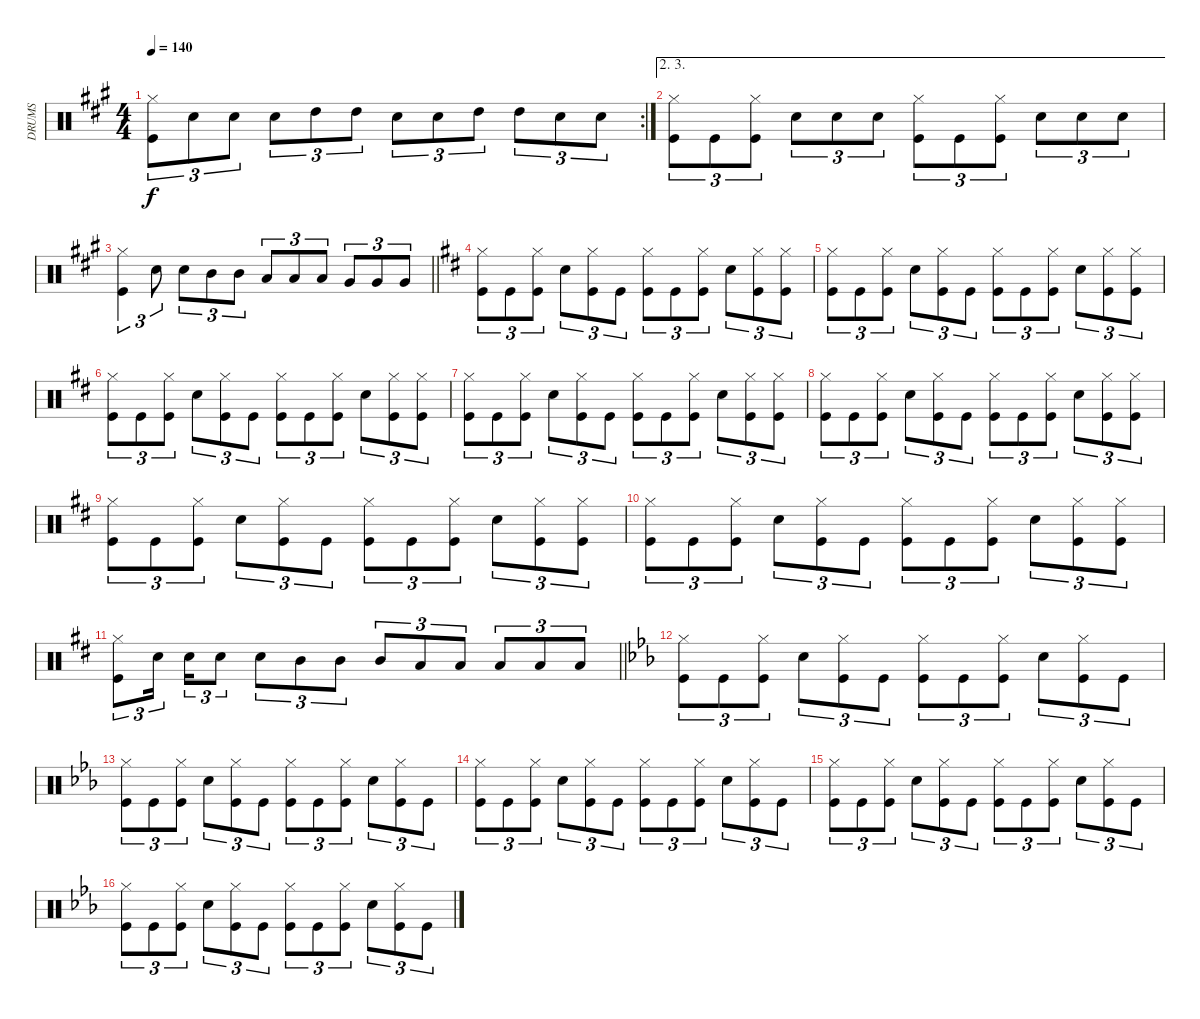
\track ("DRUMS" "DRUMS") {instrument percussion}
\staff {score}
\articulation defaults
\rc 2
\ts (4 4)
\tempo 140
\clef neutral
\ks a
("Hi-Hat (closed)" "Kick (hit)").8{tu (3 2) dy f} "Snare (hit) 2".8{tu (3 2)} "Snare (hit) 2".8{tu (3 2)} "Snare (hit) 2".8{tu (3 2)} "High Tom (hit)".8{tu (3 2)} "High Tom (hit)".8{tu (3 2)} "Snare (hit) 2".8{tu (3 2)} "Snare (hit) 2".8{tu (3 2)} "High Tom (hit)".8{tu (3 2)} "High Tom (hit)".8{tu (3 2)} "Snare (hit) 2".8{tu (3 2)} "Snare (hit) 2".8{tu (3 2)} |
\ae (2 3)
("Hi-Hat (closed)" "Kick (hit)").8{tu (3 2)} "Kick (hit)".8{tu (3 2)} ("Hi-Hat (closed)" "Kick (hit)").8{tu (3 2)} "Snare (hit) 2".8{tu (3 2)} "Snare (hit) 2".8{tu (3 2)} "Snare (hit) 2".8{tu (3 2)} ("Hi-Hat (closed)" "Kick (hit)").8{tu (3 2)} "Kick (hit)".8{tu (3 2)} ("Hi-Hat (closed)" "Kick (hit)").8{tu (3 2)} "Snare (hit) 2".8{tu (3 2)} "Snare (hit) 2".8{tu (3 2)} "Snare (hit) 2".8{tu (3 2)} |
\barLineRight lightlight
("Hi-Hat (closed)" "Kick (hit)").4{tu (3 2)} "Snare (hit) 2".8{tu (3 2)} "Snare (hit) 2".8{tu (3 2)} "Mid Tom (hit)".8{tu (3 2)} "Mid Tom (hit)".8{tu (3 2)} "Low Tom (hit)".8{tu (3 2)} "Low Tom (hit)".8{tu (3 2)} "Low Tom (hit)".8{tu (3 2)} "Very Low Tom (hit)".8{tu (3 2)} "Very Low Tom (hit)".8{tu (3 2)} "Very Low Tom (hit)".8{tu (3 2)} |
\ks d
("Hi-Hat (closed)" "Kick (hit)").8{tu (3 2)} "Kick (hit)".8{tu (3 2)} ("Hi-Hat (closed)" "Kick (hit)").8{tu (3 2)} "Snare (hit) 2".8{tu (3 2)} ("Hi-Hat (closed)" "Kick (hit)").8{tu (3 2)} "Kick (hit)".8{tu (3 2)} ("Hi-Hat (closed)" "Kick (hit)").8{tu (3 2)} "Kick (hit)".8{tu (3 2)} ("Hi-Hat (closed)" "Kick (hit)").8{tu (3 2)} "Snare (hit) 2".8{tu (3 2)} ("Hi-Hat (closed)" "Kick (hit)").8{tu (3 2)} ("Hi-Hat (closed)" "Kick (hit)").8{tu (3 2)} |
("Hi-Hat (closed)" "Kick (hit)").8{tu (3 2)} "Kick (hit)".8{tu (3 2)} ("Hi-Hat (closed)" "Kick (hit)").8{tu (3 2)} "Snare (hit) 2".8{tu (3 2)} ("Hi-Hat (closed)" "Kick (hit)").8{tu (3 2)} "Kick (hit)".8{tu (3 2)} ("Hi-Hat (closed)" "Kick (hit)").8{tu (3 2)} "Kick (hit)".8{tu (3 2)} ("Hi-Hat (closed)" "Kick (hit)").8{tu (3 2)} "Snare (hit) 2".8{tu (3 2)} ("Hi-Hat (closed)" "Kick (hit)").8{tu (3 2)} ("Hi-Hat (closed)" "Kick (hit)").8{tu (3 2)} |
("Hi-Hat (closed)" "Kick (hit)").8{tu (3 2)} "Kick (hit)".8{tu (3 2)} ("Hi-Hat (closed)" "Kick (hit)").8{tu (3 2)} "Snare (hit) 2".8{tu (3 2)} ("Hi-Hat (closed)" "Kick (hit)").8{tu (3 2)} "Kick (hit)".8{tu (3 2)} ("Hi-Hat (closed)" "Kick (hit)").8{tu (3 2)} "Kick (hit)".8{tu (3 2)} ("Hi-Hat (closed)" "Kick (hit)").8{tu (3 2)} "Snare (hit) 2".8{tu (3 2)} ("Hi-Hat (closed)" "Kick (hit)").8{tu (3 2)} ("Hi-Hat (closed)" "Kick (hit)").8{tu (3 2)} |
("Hi-Hat (closed)" "Kick (hit)").8{tu (3 2)} "Kick (hit)".8{tu (3 2)} ("Hi-Hat (closed)" "Kick (hit)").8{tu (3 2)} "Snare (hit) 2".8{tu (3 2)} ("Hi-Hat (closed)" "Kick (hit)").8{tu (3 2)} "Kick (hit)".8{tu (3 2)} ("Hi-Hat (closed)" "Kick (hit)").8{tu (3 2)} "Kick (hit)".8{tu (3 2)} ("Hi-Hat (closed)" "Kick (hit)").8{tu (3 2)} "Snare (hit) 2".8{tu (3 2)} ("Hi-Hat (closed)" "Kick (hit)").8{tu (3 2)} ("Hi-Hat (closed)" "Kick (hit)").8{tu (3 2)} |
("Hi-Hat (closed)" "Kick (hit)").8{tu (3 2)} "Kick (hit)".8{tu (3 2)} ("Hi-Hat (closed)" "Kick (hit)").8{tu (3 2)} "Snare (hit) 2".8{tu (3 2)} ("Hi-Hat (closed)" "Kick (hit)").8{tu (3 2)} "Kick (hit)".8{tu (3 2)} ("Hi-Hat (closed)" "Kick (hit)").8{tu (3 2)} "Kick (hit)".8{tu (3 2)} ("Hi-Hat (closed)" "Kick (hit)").8{tu (3 2)} "Snare (hit) 2".8{tu (3 2)} ("Hi-Hat (closed)" "Kick (hit)").8{tu (3 2)} ("Hi-Hat (closed)" "Kick (hit)").8{tu (3 2)} |
("Hi-Hat (closed)" "Kick (hit)").8{tu (3 2)} "Kick (hit)".8{tu (3 2)} ("Hi-Hat (closed)" "Kick (hit)").8{tu (3 2)} "Snare (hit) 2".8{tu (3 2)} ("Hi-Hat (closed)" "Kick (hit)").8{tu (3 2)} "Kick (hit)".8{tu (3 2)} ("Hi-Hat (closed)" "Kick (hit)").8{tu (3 2)} "Kick (hit)".8{tu (3 2)} ("Hi-Hat (closed)" "Kick (hit)").8{tu (3 2)} "Snare (hit) 2".8{tu (3 2)} ("Hi-Hat (closed)" "Kick (hit)").8{tu (3 2)} ("Hi-Hat (closed)" "Kick (hit)").8{tu (3 2)} |
("Hi-Hat (closed)" "Kick (hit)").8{tu (3 2)} "Kick (hit)".8{tu (3 2)} ("Hi-Hat (closed)" "Kick (hit)").8{tu (3 2)} "Snare (hit) 2".8{tu (3 2)} ("Hi-Hat (closed)" "Kick (hit)").8{tu (3 2)} "Kick (hit)".8{tu (3 2)} ("Hi-Hat (closed)" "Kick (hit)").8{tu (3 2)} "Kick (hit)".8{tu (3 2)} ("Hi-Hat (closed)" "Kick (hit)").8{tu (3 2)} "Snare (hit) 2".8{tu (3 2)} ("Hi-Hat (closed)" "Kick (hit)").8{tu (3 2)} ("Hi-Hat (closed)" "Kick (hit)").8{tu (3 2)} |
\barLineRight lightlight
("Hi-Hat (closed)" "Kick (hit)").8{tu (3 2)} "Snare (hit) 2".16{tu (3 2) beam splitsecondary} "Snare (hit) 2".16{tu (3 2)} "Snare (hit) 2".8{tu (3 2)} "Snare (hit) 2".8{tu (3 2)} "Mid Tom (hit)".8{tu (3 2)} "Mid Tom (hit)".8{tu (3 2)} "Mid Tom (hit)".8{tu (3 2)} "Low Tom (hit)".8{tu (3 2)} "Low Tom (hit)".8{tu (3 2)} "Low Tom (hit)".8{tu (3 2)} "Low Tom (hit)".8{tu (3 2)} "Low Tom (hit)".8{tu (3 2)} |
\ks eb
("Hi-Hat (closed)" "Kick (hit)").8{tu (3 2)} "Kick (hit)".8{tu (3 2)} ("Hi-Hat (closed)" "Kick (hit)").8{tu (3 2)} "Snare (hit) 2".8{tu (3 2)} ("Hi-Hat (closed)" "Kick (hit)").8{tu (3 2)} "Kick (hit)".8{tu (3 2)} ("Hi-Hat (closed)" "Kick (hit)").8{tu (3 2)} "Kick (hit)".8{tu (3 2)} ("Hi-Hat (closed)" "Kick (hit)").8{tu (3 2)} "Snare (hit) 2".8{tu (3 2)} ("Hi-Hat (closed)" "Kick (hit)").8{tu (3 2)} "Kick (hit)".8{tu (3 2)} |
("Hi-Hat (closed)" "Kick (hit)").8{tu (3 2)} "Kick (hit)".8{tu (3 2)} ("Hi-Hat (closed)" "Kick (hit)").8{tu (3 2)} "Snare (hit) 2".8{tu (3 2)} ("Hi-Hat (closed)" "Kick (hit)").8{tu (3 2)} "Kick (hit)".8{tu (3 2)} ("Hi-Hat (closed)" "Kick (hit)").8{tu (3 2)} "Kick (hit)".8{tu (3 2)} ("Hi-Hat (closed)" "Kick (hit)").8{tu (3 2)} "Snare (hit) 2".8{tu (3 2)} ("Hi-Hat (closed)" "Kick (hit)").8{tu (3 2)} "Kick (hit)".8{tu (3 2)} |
("Hi-Hat (closed)" "Kick (hit)").8{tu (3 2)} "Kick (hit)".8{tu (3 2)} ("Hi-Hat (closed)" "Kick (hit)").8{tu (3 2)} "Snare (hit) 2".8{tu (3 2)} ("Hi-Hat (closed)" "Kick (hit)").8{tu (3 2)} "Kick (hit)".8{tu (3 2)} ("Hi-Hat (closed)" "Kick (hit)").8{tu (3 2)} "Kick (hit)".8{tu (3 2)} ("Hi-Hat (closed)" "Kick (hit)").8{tu (3 2)} "Snare (hit) 2".8{tu (3 2)} ("Hi-Hat (closed)" "Kick (hit)").8{tu (3 2)} "Kick (hit)".8{tu (3 2)} |
("Hi-Hat (closed)" "Kick (hit)").8{tu (3 2)} "Kick (hit)".8{tu (3 2)} ("Hi-Hat (closed)" "Kick (hit)").8{tu (3 2)} "Snare (hit) 2".8{tu (3 2)} ("Hi-Hat (closed)" "Kick (hit)").8{tu (3 2)} "Kick (hit)".8{tu (3 2)} ("Hi-Hat (closed)" "Kick (hit)").8{tu (3 2)} "Kick (hit)".8{tu (3 2)} ("Hi-Hat (closed)" "Kick (hit)").8{tu (3 2)} "Snare (hit) 2".8{tu (3 2)} ("Hi-Hat (closed)" "Kick (hit)").8{tu (3 2)} "Kick (hit)".8{tu (3 2)} |
("Hi-Hat (closed)" "Kick (hit)").8{tu (3 2)} "Kick (hit)".8{tu (3 2)} ("Hi-Hat (closed)" "Kick (hit)").8{tu (3 2)} "Snare (hit) 2".8{tu (3 2)} ("Hi-Hat (closed)" "Kick (hit)").8{tu (3 2)} "Kick (hit)".8{tu (3 2)} ("Hi-Hat (closed)" "Kick (hit)").8{tu (3 2)} "Kick (hit)".8{tu (3 2)} ("Hi-Hat (closed)" "Kick (hit)").8{tu (3 2)} "Snare (hit) 2".8{tu (3 2)} ("Hi-Hat (closed)" "Kick (hit)").8{tu (3 2)} "Kick (hit)".8{tu (3 2)}
